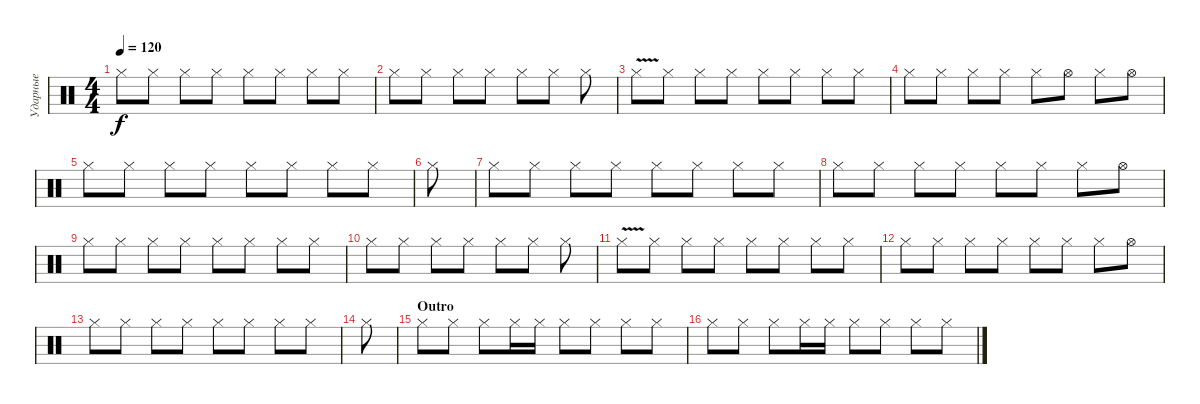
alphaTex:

\track ("Ударные" "Ударные") {instrument percussion}
\staff {score}
\articulation defaults
\ts (4 4)
\tempo 120
\clef neutral
\ks c "Hi-Hat (closed)".8{dy f} "Hi-Hat (closed)".8 "Hi-Hat (closed)".8 "Hi-Hat (closed)".8 "Hi-Hat (closed)".8 "Hi-Hat (closed)".8 "Hi-Hat (closed)".8 "Hi-Hat (closed)".8
|
"Hi-Hat (closed)".8 "Hi-Hat (closed)".8 "Hi-Hat (closed)".8 "Hi-Hat (closed)".8 "Hi-Hat (closed)".8 "Hi-Hat (closed)".8 "Hi-Hat (closed)".8 |
"Hi-Hat (closed)"{v}.8 "Hi-Hat (closed)".8 "Hi-Hat (closed)".8 "Hi-Hat (closed)".8 "Hi-Hat (closed)".8 "Hi-Hat (closed)".8 "Hi-Hat (closed)".8 "Hi-Hat (closed)".8 |
"Hi-Hat (closed)".8 "Hi-Hat (closed)".8 "Hi-Hat (closed)".8 "Hi-Hat (closed)".8 "Hi-Hat (closed)".8 "Hi-Hat (open)".8 "Hi-Hat (closed)".8 "Hi-Hat (open)".8 |
"Hi-Hat (closed)".8 "Hi-Hat (closed)".8 "Hi-Hat (closed)".8 "Hi-Hat (closed)".8 "Hi-Hat (closed)".8 "Hi-Hat (closed)".8 "Hi-Hat (closed)".8 "Hi-Hat (closed)".8 |
"Hi-Hat (closed)".8 |
"Hi-Hat (closed)".8 "Hi-Hat (closed)".8 "Hi-Hat (closed)".8 "Hi-Hat (closed)".8 "Hi-Hat (closed)".8 "Hi-Hat (closed)".8 "Hi-Hat (closed)".8 "Hi-Hat (closed)".8 |
"Hi-Hat (closed)".8 "Hi-Hat (closed)".8 "Hi-Hat (closed)".8 "Hi-Hat (closed)".8 "Hi-Hat (closed)".8 "Hi-Hat (closed)".8 "Hi-Hat (closed)".8 "Hi-Hat (open)".8 |
"Hi-Hat (closed)".8 "Hi-Hat (closed)".8 "Hi-Hat (closed)".8 "Hi-Hat (closed)".8 "Hi-Hat (closed)".8 "Hi-Hat (closed)".8 "Hi-Hat (closed)".8 "Hi-Hat (closed)".8 |
"Hi-Hat (closed)".8 "Hi-Hat (closed)".8 "Hi-Hat (closed)".8 "Hi-Hat (closed)".8 "Hi-Hat (closed)".8 "Hi-Hat (closed)".8 "Hi-Hat (closed)".8 |
"Hi-Hat (closed)"{v}.8 "Hi-Hat (closed)".8 "Hi-Hat (closed)".8 "Hi-Hat (closed)".8 "Hi-Hat (closed)".8 "Hi-Hat (closed)".8 "Hi-Hat (closed)".8 "Hi-Hat (closed)".8 |
"Hi-Hat (closed)".8 "Hi-Hat (closed)".8 "Hi-Hat (closed)".8 "Hi-Hat (closed)".8 "Hi-Hat (closed)".8 "Hi-Hat (closed)".8 "Hi-Hat (closed)".8 "Hi-Hat (open)".8 |
"Hi-Hat (closed)".8 "Hi-Hat (closed)".8 "Hi-Hat (closed)".8 "Hi-Hat (closed)".8 "Hi-Hat (closed)".8 "Hi-Hat (closed)".8 "Hi-Hat (closed)".8 "Hi-Hat (closed)".8 |
"Hi-Hat (closed)".8 |
\section ("" "Outro")
"Hi-Hat (closed)".8 "Hi-Hat (closed)".8 "Hi-Hat (closed)".8 "Hi-Hat (closed)".16 "Hi-Hat (closed)".16 "Hi-Hat (closed)".8 "Hi-Hat (closed)".8 "Hi-Hat (closed)".8 "Hi-Hat (closed)".8 |
"Hi-Hat (closed)".8 "Hi-Hat (closed)".8 "Hi-Hat (closed)".8 "Hi-Hat (closed)".16 "Hi-Hat (closed)".16 "Hi-Hat (closed)".8 "Hi-Hat (closed)".8 "Hi-Hat (closed)".8 "Hi-Hat (closed)".8
